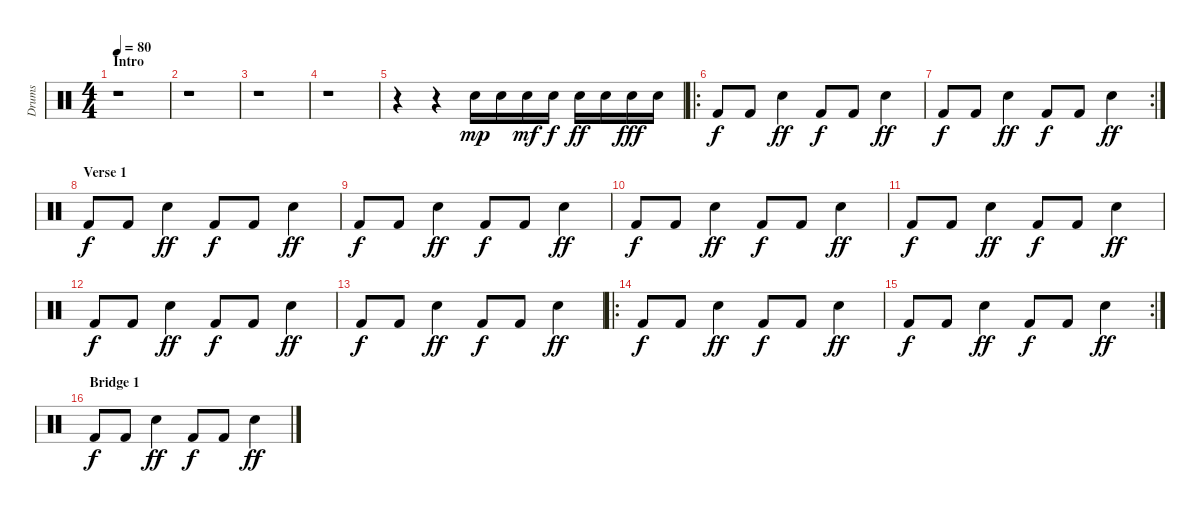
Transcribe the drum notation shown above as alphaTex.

\track ("Drums" "Drums") {instrument percussion}
\staff {score}
\articulation defaults
\ts (4 4)
\section ("" "Intro")
\tempo 80
\clef neutral
\ks c
r.1{dy mp} |
r.1 |
r.1 |
r.1 |
r.4 r.4 "Snare (hit) 2".16 "Snare (hit) 2".16 "Snare (hit) 2".16{dy mf} "Snare (hit) 2".16{dy f} "Snare (hit) 2".16{dy ff} "Snare (hit) 2".16 "Snare (hit) 2".16{dy fff} "Snare (hit) 2".16 |
\ro "Kick (hit) 2".8{dy f} "Kick (hit) 2".8 "Snare (hit) 2".4{dy ff} "Kick (hit) 2".8{dy f} "Kick (hit) 2".8 "Snare (hit) 2".4{dy ff}
|
\rc 2 "Kick (hit) 2".8{dy f} "Kick (hit) 2".8 "Snare (hit) 2".4{dy ff} "Kick (hit) 2".8{dy f} "Kick (hit) 2".8 "Snare (hit) 2".4{dy ff}
|
\section ("" "Verse 1")
"Kick (hit) 2".8{dy f} "Kick (hit) 2".8 "Snare (hit) 2".4{dy ff} "Kick (hit) 2".8{dy f} "Kick (hit) 2".8 "Snare (hit) 2".4{dy ff} |
"Kick (hit) 2".8{dy f} "Kick (hit) 2".8 "Snare (hit) 2".4{dy ff} "Kick (hit) 2".8{dy f} "Kick (hit) 2".8 "Snare (hit) 2".4{dy ff} |
"Kick (hit) 2".8{dy f} "Kick (hit) 2".8 "Snare (hit) 2".4{dy ff} "Kick (hit) 2".8{dy f} "Kick (hit) 2".8 "Snare (hit) 2".4{dy ff} |
"Kick (hit) 2".8{dy f} "Kick (hit) 2".8 "Snare (hit) 2".4{dy ff} "Kick (hit) 2".8{dy f} "Kick (hit) 2".8 "Snare (hit) 2".4{dy ff} |
"Kick (hit) 2".8{dy f} "Kick (hit) 2".8 "Snare (hit) 2".4{dy ff} "Kick (hit) 2".8{dy f} "Kick (hit) 2".8 "Snare (hit) 2".4{dy ff} |
"Kick (hit) 2".8{dy f} "Kick (hit) 2".8 "Snare (hit) 2".4{dy ff} "Kick (hit) 2".8{dy f} "Kick (hit) 2".8 "Snare (hit) 2".4{dy ff} |
\ro "Kick (hit) 2".8{dy f} "Kick (hit) 2".8 "Snare (hit) 2".4{dy ff} "Kick (hit) 2".8{dy f} "Kick (hit) 2".8 "Snare (hit) 2".4{dy ff}
|
\rc 2 "Kick (hit) 2".8{dy f} "Kick (hit) 2".8 "Snare (hit) 2".4{dy ff} "Kick (hit) 2".8{dy f} "Kick (hit) 2".8 "Snare (hit) 2".4{dy ff}
|
\section ("" "Bridge 1")
"Kick (hit) 2".8{dy f} "Kick (hit) 2".8 "Snare (hit) 2".4{dy ff} "Kick (hit) 2".8{dy f} "Kick (hit) 2".8 "Snare (hit) 2".4{dy ff}
